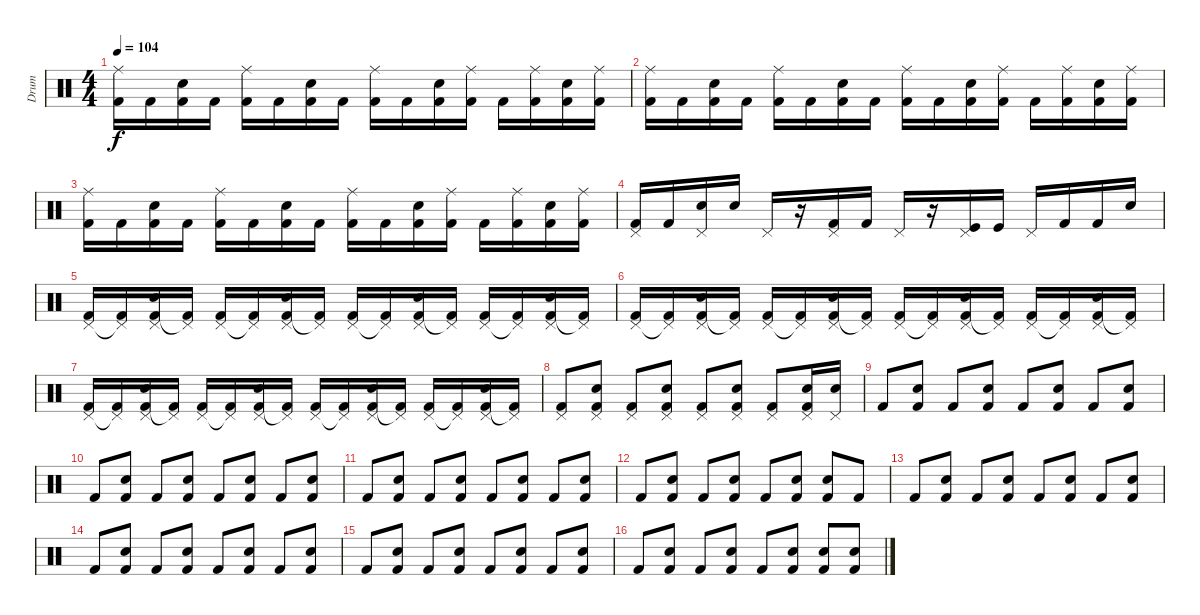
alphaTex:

\track ("Drum" "Drum") {instrument percussion}
\staff {score}
\articulation defaults
\ts (4 4)
\tempo 104
\clef neutral
\ks c
("Kick (hit) 2" "Ride (middle)").16{dy f} "Kick (hit) 2".16 ("Snare (hit) 2" "Kick (hit) 2").16 "Kick (hit) 2".16 ("Kick (hit) 2" "Ride (middle)").16 "Kick (hit) 2".16 ("Snare (hit) 2" "Kick (hit) 2").16 "Kick (hit) 2".16 ("Kick (hit) 2" "Ride (middle)").16 "Kick (hit) 2".16 ("Snare (hit) 2" "Kick (hit) 2").16 ("Kick (hit) 2" "Ride (middle)").16 "Kick (hit) 2".16 ("Kick (hit) 2" "Ride (middle)").16 ("Snare (hit) 2" "Kick (hit) 2").16 ("Kick (hit) 2" "Ride (middle)").16 |
("Kick (hit) 2" "Ride (middle)").16 "Kick (hit) 2".16 ("Snare (hit) 2" "Kick (hit) 2").16 "Kick (hit) 2".16 ("Kick (hit) 2" "Ride (middle)").16 "Kick (hit) 2".16 ("Snare (hit) 2" "Kick (hit) 2").16 "Kick (hit) 2".16 ("Kick (hit) 2" "Ride (middle)").16 "Kick (hit) 2".16 ("Snare (hit) 2" "Kick (hit) 2").16 ("Kick (hit) 2" "Ride (middle)").16 "Kick (hit) 2".16 ("Kick (hit) 2" "Ride (middle)").16 ("Snare (hit) 2" "Kick (hit) 2").16 ("Kick (hit) 2" "Ride (middle)").16 |
("Kick (hit) 2" "Ride (middle)").16 "Kick (hit) 2".16 ("Snare (hit) 2" "Kick (hit) 2").16 "Kick (hit) 2".16 ("Kick (hit) 2" "Ride (middle)").16 "Kick (hit) 2".16 ("Snare (hit) 2" "Kick (hit) 2").16 "Kick (hit) 2".16 ("Kick (hit) 2" "Ride (middle)").16 "Kick (hit) 2".16 ("Snare (hit) 2" "Kick (hit) 2").16 ("Kick (hit) 2" "Ride (middle)").16 "Kick (hit) 2".16 ("Kick (hit) 2" "Ride (middle)").16 ("Snare (hit) 2" "Kick (hit) 2").16 ("Kick (hit) 2" "Ride (middle)").16 |
("Kick (hit) 2" "Pedal Hi-Hat (hit)").16 "Kick (hit) 2".16 ("Snare (hit) 2" "Pedal Hi-Hat (hit)").16 "Snare (hit) 2".16 "Pedal Hi-Hat (hit)".16 r.16 ("Kick (hit) 2" "Pedal Hi-Hat (hit)").16 "Kick (hit) 2".16 "Pedal Hi-Hat (hit)".16 r.16 ("Kick (hit)" "Pedal Hi-Hat (hit)").16 "Kick (hit)".16 "Pedal Hi-Hat (hit)".16 "Kick (hit) 2".16 "Kick (hit) 2".16 "Snare (hit) 2".16 |
("Kick (hit) 2" "Pedal Hi-Hat (hit)").16 ("Kick (hit) 2" "Pedal Hi-Hat (hit)"{t}).16 ("Snare (hit) 2" "Kick (hit) 2" "Pedal Hi-Hat (hit)").16 ("Kick (hit) 2" "Pedal Hi-Hat (hit)"{t}).16 ("Kick (hit) 2" "Pedal Hi-Hat (hit)").16 ("Kick (hit) 2" "Pedal Hi-Hat (hit)"{t}).16 ("Snare (hit) 2" "Kick (hit) 2" "Pedal Hi-Hat (hit)").16 ("Kick (hit) 2" "Pedal Hi-Hat (hit)"{t}).16 ("Kick (hit) 2" "Pedal Hi-Hat (hit)").16 ("Kick (hit) 2" "Pedal Hi-Hat (hit)"{t}).16 ("Snare (hit) 2" "Kick (hit) 2" "Pedal Hi-Hat (hit)").16 ("Kick (hit) 2" "Pedal Hi-Hat (hit)"{t}).16 ("Kick (hit) 2" "Pedal Hi-Hat (hit)").16 ("Kick (hit) 2" "Pedal Hi-Hat (hit)"{t}).16 ("Snare (hit) 2" "Kick (hit) 2" "Pedal Hi-Hat (hit)").16 ("Kick (hit) 2" "Pedal Hi-Hat (hit)"{t}).16 |
("Kick (hit) 2" "Pedal Hi-Hat (hit)").16 ("Kick (hit) 2" "Pedal Hi-Hat (hit)"{t}).16 ("Snare (hit) 2" "Kick (hit) 2" "Pedal Hi-Hat (hit)").16 ("Kick (hit) 2" "Pedal Hi-Hat (hit)"{t}).16 ("Kick (hit) 2" "Pedal Hi-Hat (hit)").16 ("Kick (hit) 2" "Pedal Hi-Hat (hit)"{t}).16 ("Snare (hit) 2" "Kick (hit) 2" "Pedal Hi-Hat (hit)").16 ("Kick (hit) 2" "Pedal Hi-Hat (hit)"{t}).16 ("Kick (hit) 2" "Pedal Hi-Hat (hit)").16 ("Kick (hit) 2" "Pedal Hi-Hat (hit)"{t}).16 ("Snare (hit) 2" "Kick (hit) 2" "Pedal Hi-Hat (hit)").16 ("Kick (hit) 2" "Pedal Hi-Hat (hit)"{t}).16 ("Kick (hit) 2" "Pedal Hi-Hat (hit)").16 ("Kick (hit) 2" "Pedal Hi-Hat (hit)"{t}).16 ("Snare (hit) 2" "Kick (hit) 2" "Pedal Hi-Hat (hit)").16 ("Kick (hit) 2" "Pedal Hi-Hat (hit)"{t}).16 |
("Kick (hit) 2" "Pedal Hi-Hat (hit)").16 ("Kick (hit) 2" "Pedal Hi-Hat (hit)"{t}).16 ("Snare (hit) 2" "Kick (hit) 2" "Pedal Hi-Hat (hit)").16 ("Kick (hit) 2" "Pedal Hi-Hat (hit)"{t}).16 ("Kick (hit) 2" "Pedal Hi-Hat (hit)").16 ("Kick (hit) 2" "Pedal Hi-Hat (hit)"{t}).16 ("Snare (hit) 2" "Kick (hit) 2" "Pedal Hi-Hat (hit)").16 ("Kick (hit) 2" "Pedal Hi-Hat (hit)"{t}).16 ("Kick (hit) 2" "Pedal Hi-Hat (hit)").16 ("Kick (hit) 2" "Pedal Hi-Hat (hit)"{t}).16 ("Snare (hit) 2" "Kick (hit) 2" "Pedal Hi-Hat (hit)").16 ("Kick (hit) 2" "Pedal Hi-Hat (hit)"{t}).16 ("Kick (hit) 2" "Pedal Hi-Hat (hit)").16 ("Kick (hit) 2" "Pedal Hi-Hat (hit)"{t}).16 ("Snare (hit) 2" "Kick (hit) 2" "Pedal Hi-Hat (hit)").16 ("Kick (hit) 2" "Pedal Hi-Hat (hit)"{t}).16 |
("Kick (hit) 2" "Pedal Hi-Hat (hit)").8 ("Snare (hit) 2" "Kick (hit) 2" "Pedal Hi-Hat (hit)").8 ("Kick (hit) 2" "Pedal Hi-Hat (hit)").8 ("Snare (hit) 2" "Kick (hit) 2" "Pedal Hi-Hat (hit)").8 ("Kick (hit) 2" "Pedal Hi-Hat (hit)").8 ("Snare (hit) 2" "Kick (hit) 2" "Pedal Hi-Hat (hit)").8 ("Kick (hit) 2" "Pedal Hi-Hat (hit)").8 ("Snare (hit) 2" "Kick (hit) 2" "Pedal Hi-Hat (hit)").16 ("Snare (hit) 2" "Pedal Hi-Hat (hit)").16 |
"Kick (hit) 2".8 ("Snare (hit) 2" "Kick (hit) 2").8 "Kick (hit) 2".8 ("Snare (hit) 2" "Kick (hit) 2").8 "Kick (hit) 2".8 ("Snare (hit) 2" "Kick (hit) 2").8 "Kick (hit) 2".8 ("Snare (hit) 2" "Kick (hit) 2").8 |
"Kick (hit) 2".8 ("Snare (hit) 2" "Kick (hit) 2").8 "Kick (hit) 2".8 ("Snare (hit) 2" "Kick (hit) 2").8 "Kick (hit) 2".8 ("Snare (hit) 2" "Kick (hit) 2").8 "Kick (hit) 2".8 ("Snare (hit) 2" "Kick (hit) 2").8 |
"Kick (hit) 2".8 ("Snare (hit) 2" "Kick (hit) 2").8 "Kick (hit) 2".8 ("Snare (hit) 2" "Kick (hit) 2").8 "Kick (hit) 2".8 ("Snare (hit) 2" "Kick (hit) 2").8 "Kick (hit) 2".8 ("Snare (hit) 2" "Kick (hit) 2").8 |
"Kick (hit) 2".8 ("Snare (hit) 2" "Kick (hit) 2").8 "Kick (hit) 2".8 ("Snare (hit) 2" "Kick (hit) 2").8 "Kick (hit) 2".8 ("Snare (hit) 2" "Kick (hit) 2").8 ("Snare (hit) 2" "Kick (hit) 2").8 "Kick (hit) 2".8 |
"Kick (hit) 2".8 ("Snare (hit) 2" "Kick (hit) 2").8 "Kick (hit) 2".8 ("Snare (hit) 2" "Kick (hit) 2").8 "Kick (hit) 2".8 ("Snare (hit) 2" "Kick (hit) 2").8 "Kick (hit) 2".8 ("Snare (hit) 2" "Kick (hit) 2").8 |
"Kick (hit) 2".8 ("Snare (hit) 2" "Kick (hit) 2").8 "Kick (hit) 2".8 ("Snare (hit) 2" "Kick (hit) 2").8 "Kick (hit) 2".8 ("Snare (hit) 2" "Kick (hit) 2").8 "Kick (hit) 2".8 ("Snare (hit) 2" "Kick (hit) 2").8 |
"Kick (hit) 2".8 ("Snare (hit) 2" "Kick (hit) 2").8 "Kick (hit) 2".8 ("Snare (hit) 2" "Kick (hit) 2").8 "Kick (hit) 2".8 ("Snare (hit) 2" "Kick (hit) 2").8 "Kick (hit) 2".8 ("Snare (hit) 2" "Kick (hit) 2").8 |
"Kick (hit) 2".8 ("Snare (hit) 2" "Kick (hit) 2").8 "Kick (hit) 2".8 ("Snare (hit) 2" "Kick (hit) 2").8 "Kick (hit) 2".8 ("Snare (hit) 2" "Kick (hit) 2").8 ("Snare (hit) 2" "Kick (hit) 2").8 ("Snare (hit) 2" "Kick (hit) 2").8
